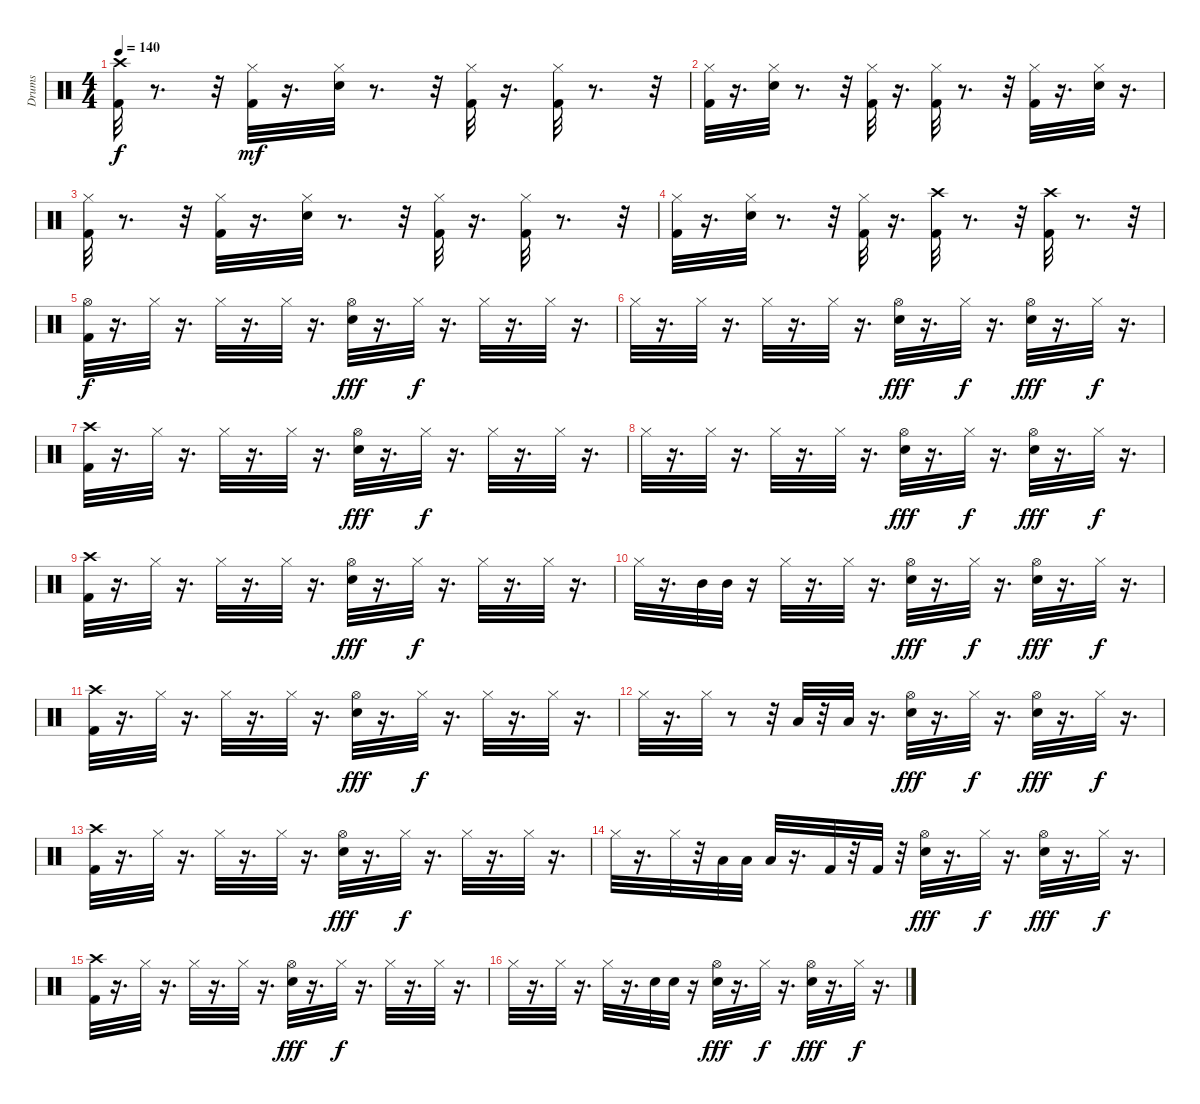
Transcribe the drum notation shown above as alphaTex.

\track ("Drums" "Drums") {instrument percussion}
\staff {score}
\articulation defaults
\ts (4 4)
\tempo 140
\clef neutral
\ks c
("Crash high (hit)" "Kick (hit) 2").32{dy f} r.8{d} r.32 ("Hi-Hat (closed)" "Kick (hit) 2").32{dy mf} r.16{d} ("Hi-Hat (closed)" "Snare (hit) 2").32 r.8{d} r.32 ("Hi-Hat (closed)" "Kick (hit) 2").32 r.16{d} ("Hi-Hat (closed)" "Kick (hit) 2").32 r.8{d} r.32 |
("Hi-Hat (closed)" "Kick (hit) 2").32 r.16{d} ("Hi-Hat (closed)" "Snare (hit) 2").32 r.8{d} r.32 ("Hi-Hat (closed)" "Kick (hit) 2").32 r.16{d} ("Hi-Hat (closed)" "Kick (hit) 2").32 r.8{d} r.32 ("Hi-Hat (closed)" "Kick (hit) 2").32 r.16{d} ("Hi-Hat (closed)" "Snare (hit) 2").32 r.16{d} |
("Hi-Hat (closed)" "Kick (hit) 2").32 r.8{d} r.32 ("Hi-Hat (closed)" "Kick (hit) 2").32 r.16{d} ("Hi-Hat (closed)" "Snare (hit) 2").32 r.8{d} r.32 ("Hi-Hat (closed)" "Kick (hit) 2").32 r.16{d} ("Kick (hit) 2" "Hi-Hat (closed)").32 r.8{d} r.32 |
("Hi-Hat (closed)" "Kick (hit) 2").32 r.16{d} ("Hi-Hat (closed)" "Snare (hit) 2").32 r.8{d} r.32 ("Hi-Hat (closed)" "Kick (hit) 2").32 r.16{d} ("Crash high (hit)" "Kick (hit) 2").32 r.8{d} r.32 ("Crash high (hit)" "Kick (hit) 2").32 r.8{d} r.32 |
("Kick (hit) 2" "Hi-Hat (open)").32{dy f} r.16{d} "Hi-Hat (closed)".32 r.16{d} "Hi-Hat (closed)".32 r.16{d} "Hi-Hat (closed)".32 r.16{d} ("Hi-Hat (open)" "Snare (hit) 2").32{dy fff} r.16{d} "Hi-Hat (closed)".32{dy f} r.16{d} "Hi-Hat (closed)".32 r.16{d} "Hi-Hat (closed)".32 r.16{d} |
"Hi-Hat (closed)".32 r.16{d} "Hi-Hat (closed)".32 r.16{d} "Hi-Hat (closed)".32 r.16{d} "Hi-Hat (closed)".32 r.16{d} ("Snare (hit) 2" "Hi-Hat (open)").32{dy fff} r.16{d} "Hi-Hat (closed)".32{dy f} r.16{d} ("Snare (hit) 2" "Hi-Hat (open)").32{dy fff} r.16{d} "Hi-Hat (closed)".32{dy f} r.16{d} |
("Kick (hit) 2" "Crash high (hit)").32 r.16{d} "Hi-Hat (closed)".32 r.16{d} "Hi-Hat (closed)".32 r.16{d} "Hi-Hat (closed)".32 r.16{d} ("Hi-Hat (open)" "Snare (hit) 2").32{dy fff} r.16{d} "Hi-Hat (closed)".32{dy f} r.16{d} "Hi-Hat (closed)".32 r.16{d} "Hi-Hat (closed)".32 r.16{d} |
"Hi-Hat (closed)".32 r.16{d} "Hi-Hat (closed)".32 r.16{d} "Hi-Hat (closed)".32 r.16{d} "Hi-Hat (closed)".32 r.16{d} ("Snare (hit) 2" "Hi-Hat (open)").32{dy fff} r.16{d} "Hi-Hat (closed)".32{dy f} r.16{d} ("Snare (hit) 2" "Hi-Hat (open)").32{dy fff} r.16{d} "Hi-Hat (closed)".32{dy f} r.16{d} |
("Kick (hit) 2" "Crash high (hit)").32 r.16{d} "Hi-Hat (closed)".32 r.16{d} "Hi-Hat (closed)".32 r.16{d} "Hi-Hat (closed)".32 r.16{d} ("Hi-Hat (open)" "Snare (hit) 2").32{dy fff} r.16{d} "Hi-Hat (closed)".32{dy f} r.16{d} "Hi-Hat (closed)".32 r.16{d} "Hi-Hat (closed)".32 r.16{d} |
"Hi-Hat (closed)".32 r.16{d} "Mid Tom (hit)".32 "Mid Tom (hit)".32 r.16 "Hi-Hat (closed)".32 r.16{d} "Hi-Hat (closed)".32 r.16{d} ("Snare (hit) 2" "Hi-Hat (open)").32{dy fff} r.16{d} "Hi-Hat (closed)".32{dy f} r.16{d} ("Snare (hit) 2" "Hi-Hat (open)").32{dy fff} r.16{d} "Hi-Hat (closed)".32{dy f} r.16{d} |
("Kick (hit) 2" "Crash high (hit)").32 r.16{d} "Hi-Hat (closed)".32 r.16{d} "Hi-Hat (closed)".32 r.16{d} "Hi-Hat (closed)".32 r.16{d} ("Hi-Hat (open)" "Snare (hit) 2").32{dy fff} r.16{d} "Hi-Hat (closed)".32{dy f} r.16{d} "Hi-Hat (closed)".32 r.16{d} "Hi-Hat (closed)".32 r.16{d} |
"Hi-Hat (closed)".32 r.16{d} "Hi-Hat (closed)".32 r.8 r.32 "Low Tom (hit)".32 r.32 "Low Tom (hit)".32 r.16{d} ("Snare (hit) 2" "Hi-Hat (open)").32{dy fff} r.16{d} "Hi-Hat (closed)".32{dy f} r.16{d} ("Snare (hit) 2" "Hi-Hat (open)").32{dy fff} r.16{d} "Hi-Hat (closed)".32{dy f} r.16{d} |
("Kick (hit) 2" "Crash high (hit)").32 r.16{d} "Hi-Hat (closed)".32 r.16{d} "Hi-Hat (closed)".32 r.16{d} "Hi-Hat (closed)".32 r.16{d} ("Hi-Hat (open)" "Snare (hit) 2").32{dy fff} r.16{d} "Hi-Hat (closed)".32{dy f} r.16{d} "Hi-Hat (closed)".32 r.16{d} "Hi-Hat (closed)".32 r.16{d} |
"Hi-Hat (closed)".32 r.16{d} "Hi-Hat (closed)".32 r.32 "Low Tom (hit)".32 "Low Tom (hit)".32 "Low Tom (hit)".32 r.16{d} "Kick (hit) 2".32 r.32 "Kick (hit) 2".32 r.32 ("Hi-Hat (open)" "Snare (hit) 2").32{dy fff} r.16{d} "Hi-Hat (closed)".32{dy f} r.16{d} ("Snare (hit) 2" "Hi-Hat (open)").32{dy fff} r.16{d} "Hi-Hat (closed)".32{dy f} r.16{d} |
("Kick (hit) 2" "Crash high (hit)").32 r.16{d} "Hi-Hat (closed)".32 r.16{d} "Hi-Hat (closed)".32 r.16{d} "Hi-Hat (closed)".32 r.16{d} ("Hi-Hat (open)" "Snare (hit) 2").32{dy fff} r.16{d} "Hi-Hat (closed)".32{dy f} r.16{d} "Hi-Hat (closed)".32 r.16{d} "Hi-Hat (closed)".32 r.16{d} |
"Hi-Hat (closed)".32 r.16{d} "Hi-Hat (closed)".32 r.16{d} "Hi-Hat (closed)".32 r.16{d} "Snare (hit) 2".32 "Snare (hit) 2".32 r.16 ("Snare (hit) 2" "Hi-Hat (open)").32{dy fff} r.16{d} "Hi-Hat (closed)".32{dy f} r.16{d} ("Snare (hit) 2" "Hi-Hat (open)").32{dy fff} r.16{d} "Hi-Hat (closed)".32{dy f} r.16{d}
